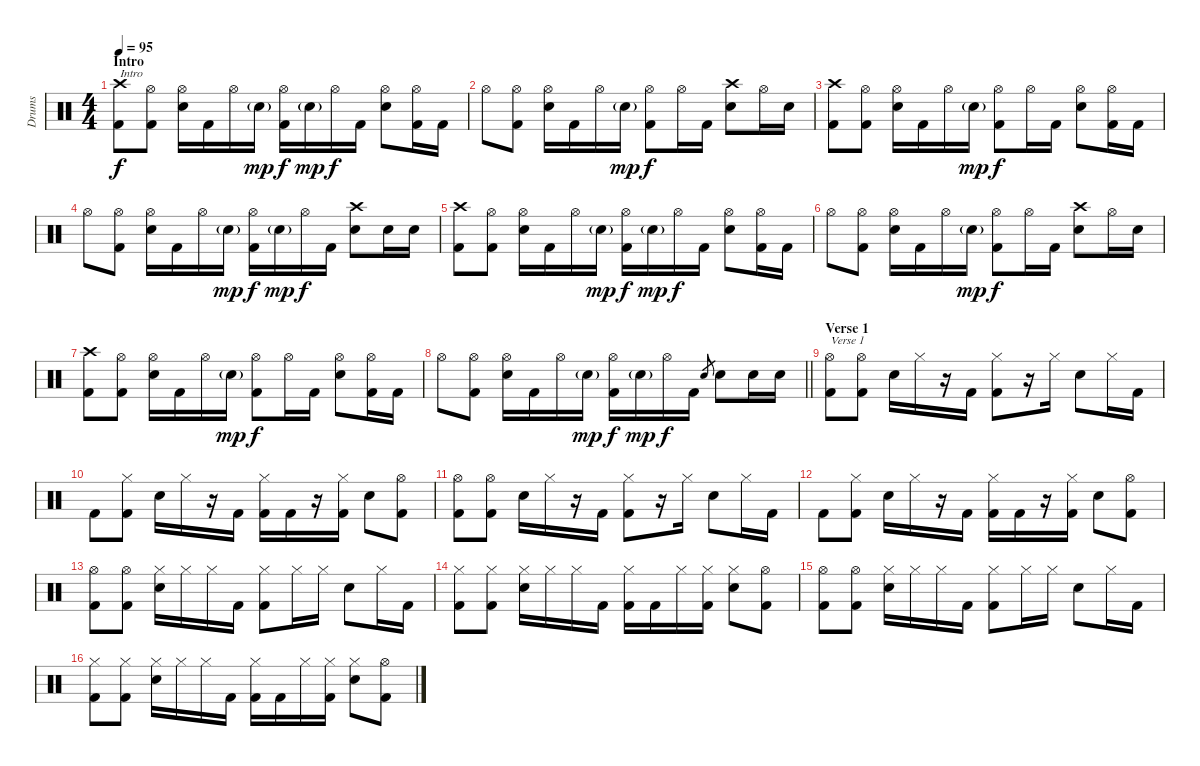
\track ("Drums" "Drums") {instrument percussion}
\staff {score}
\articulation defaults
\ts (4 4)
\section ("" "Intro")
\tempo 95
\clef neutral
\ks c
("Crash high (hit)" "Kick (hit) 2").8{txt "Intro" dy f} ("Hi-Hat (open)" "Kick (hit) 2").8 ("Hi-Hat (open)" "Electric Snare (hit)").16 "Kick (hit) 2".16 "Hi-Hat (open)".16 "Electric Snare (hit)"{g}.16{dy mp} ("Hi-Hat (open)" "Kick (hit) 2").16{dy f} "Electric Snare (hit)"{g}.16{dy mp} "Hi-Hat (open)".16{dy f} "Kick (hit) 2".16 ("Hi-Hat (open)" "Electric Snare (hit)").8 ("Hi-Hat (open)" "Kick (hit) 2").16 "Kick (hit) 2".16 |
"Hi-Hat (open)".8 ("Hi-Hat (open)" "Kick (hit) 2").8 ("Hi-Hat (open)" "Electric Snare (hit)").16 "Kick (hit) 2".16 "Hi-Hat (open)".16 "Electric Snare (hit)"{g}.16{dy mp} ("Hi-Hat (open)" "Kick (hit) 2").8{dy f} "Hi-Hat (open)".16 "Kick (hit) 2".16 ("Crash high (hit)" "Electric Snare (hit)").8 "Hi-Hat (open)".16 "Electric Snare (hit)".16 |
("Crash high (hit)" "Kick (hit) 2").8 ("Hi-Hat (open)" "Kick (hit) 2").8 ("Hi-Hat (open)" "Electric Snare (hit)").16 "Kick (hit) 2".16 "Hi-Hat (open)".16 "Electric Snare (hit)"{g}.16{dy mp} ("Hi-Hat (open)" "Kick (hit) 2").8{dy f} "Hi-Hat (open)".16 "Kick (hit) 2".16 ("Hi-Hat (open)" "Electric Snare (hit)").8 ("Hi-Hat (open)" "Kick (hit) 2").16 "Kick (hit) 2".16 |
"Hi-Hat (open)".8 ("Hi-Hat (open)" "Kick (hit) 2").8 ("Hi-Hat (open)" "Electric Snare (hit)").16 "Kick (hit) 2".16 "Hi-Hat (open)".16 "Electric Snare (hit)"{g}.16{dy mp} ("Hi-Hat (open)" "Kick (hit) 2").16{dy f} "Electric Snare (hit)"{g}.16{dy mp} "Hi-Hat (open)".16{dy f} "Kick (hit) 2".16 ("Crash high (hit)" "Electric Snare (hit)").8 "Electric Snare (hit)".16 "Electric Snare (hit)".16 |
("Crash high (hit)" "Kick (hit) 2").8 ("Hi-Hat (open)" "Kick (hit) 2").8 ("Hi-Hat (open)" "Electric Snare (hit)").16 "Kick (hit) 2".16 "Hi-Hat (open)".16 "Electric Snare (hit)"{g}.16{dy mp} ("Hi-Hat (open)" "Kick (hit) 2").16{dy f} "Electric Snare (hit)"{g}.16{dy mp} "Hi-Hat (open)".16{dy f} "Kick (hit) 2".16 ("Hi-Hat (open)" "Electric Snare (hit)").8 ("Hi-Hat (open)" "Kick (hit) 2").16 "Kick (hit) 2".16 |
"Hi-Hat (open)".8 ("Hi-Hat (open)" "Kick (hit) 2").8 ("Hi-Hat (open)" "Electric Snare (hit)").16 "Kick (hit) 2".16 "Hi-Hat (open)".16 "Electric Snare (hit)"{g}.16{dy mp} ("Hi-Hat (open)" "Kick (hit) 2").8{dy f} "Hi-Hat (open)".16 "Kick (hit) 2".16 ("Crash high (hit)" "Electric Snare (hit)").8 "Hi-Hat (open)".16 "Electric Snare (hit)".16 |
("Crash high (hit)" "Kick (hit) 2").8 ("Hi-Hat (open)" "Kick (hit) 2").8 ("Hi-Hat (open)" "Electric Snare (hit)").16 "Kick (hit) 2".16 "Hi-Hat (open)".16 "Electric Snare (hit)"{g}.16{dy mp} ("Hi-Hat (open)" "Kick (hit) 2").8{dy f} "Hi-Hat (open)".16 "Kick (hit) 2".16 ("Hi-Hat (open)" "Electric Snare (hit)").8 ("Hi-Hat (open)" "Kick (hit) 2").16 "Kick (hit) 2".16 |
\barLineRight lightlight "Hi-Hat (open)".8
("Hi-Hat (open)" "Kick (hit) 2").8 ("Hi-Hat (open)" "Electric Snare (hit)").16 "Kick (hit) 2".16 "Hi-Hat (open)".16 "Electric Snare (hit)"{g}.16{dy mp} ("Hi-Hat (open)" "Kick (hit) 2").16{dy f} "Electric Snare (hit)"{g}.16{dy mp} "Hi-Hat (open)".16{dy f} "Kick (hit) 2".16 "Electric Snare (hit)".8{gr} "Electric Snare (hit)".8 "Electric Snare (hit)".16 "Electric Snare (hit)".16 |
\section ("" "Verse 1")
("Hi-Hat (open)" "Kick (hit) 2").8{txt "Verse 1"} ("Hi-Hat (open)" "Kick (hit) 2").8 "Electric Snare (hit)".16 "Hi-Hat (closed)".16 r.16 "Kick (hit) 2".16 ("Hi-Hat (closed)" "Kick (hit) 2").8 r.16 "Hi-Hat (closed)".16 "Electric Snare (hit)".8 "Hi-Hat (closed)".16 "Kick (hit) 2".16 |
"Kick (hit) 2".8 ("Hi-Hat (closed)" "Kick (hit) 2").8 "Electric Snare (hit)".16 "Hi-Hat (closed)".16 r.16 "Kick (hit) 2".16 ("Hi-Hat (closed)" "Kick (hit) 2").16 "Kick (hit) 2".16 r.16 ("Hi-Hat (closed)" "Kick (hit) 2").16 "Electric Snare (hit)".8 ("Hi-Hat (open)" "Kick (hit) 2").8 |
("Hi-Hat (open)" "Kick (hit) 2").8 ("Hi-Hat (open)" "Kick (hit) 2").8 "Electric Snare (hit)".16 "Hi-Hat (closed)".16 r.16 "Kick (hit) 2".16 ("Hi-Hat (closed)" "Kick (hit) 2").8 r.16 "Hi-Hat (closed)".16 "Electric Snare (hit)".8 "Hi-Hat (closed)".16 "Kick (hit) 2".16 |
"Kick (hit) 2".8 ("Hi-Hat (closed)" "Kick (hit) 2").8 "Electric Snare (hit)".16 "Hi-Hat (closed)".16 r.16 "Kick (hit) 2".16 ("Hi-Hat (closed)" "Kick (hit) 2").16 "Kick (hit) 2".16 r.16 ("Hi-Hat (closed)" "Kick (hit) 2").16 "Electric Snare (hit)".8 ("Hi-Hat (open)" "Kick (hit) 2").8 |
("Hi-Hat (open)" "Kick (hit) 2").8 ("Hi-Hat (open)" "Kick (hit) 2").8 ("Hi-Hat (closed)" "Electric Snare (hit)").16 "Hi-Hat (closed)".16 "Hi-Hat (closed)".16 "Kick (hit) 2".16 ("Hi-Hat (closed)" "Kick (hit) 2").8 "Hi-Hat (closed)".16 "Hi-Hat (closed)".16 "Electric Snare (hit)".8 "Hi-Hat (closed)".16 "Kick (hit) 2".16 |
("Hi-Hat (closed)" "Kick (hit) 2").8 ("Hi-Hat (closed)" "Kick (hit) 2").8 ("Hi-Hat (closed)" "Electric Snare (hit)").16 "Hi-Hat (closed)".16 "Hi-Hat (closed)".16 "Kick (hit) 2".16 ("Hi-Hat (closed)" "Kick (hit) 2").16 "Kick (hit) 2".16 "Hi-Hat (closed)".16 ("Hi-Hat (closed)" "Kick (hit) 2").16 ("Hi-Hat (closed)" "Electric Snare (hit)").8 ("Hi-Hat (open)" "Kick (hit) 2").8 |
("Hi-Hat (open)" "Kick (hit) 2").8 ("Hi-Hat (open)" "Kick (hit) 2").8 ("Hi-Hat (closed)" "Electric Snare (hit)").16 "Hi-Hat (closed)".16 "Hi-Hat (closed)".16 "Kick (hit) 2".16 ("Hi-Hat (closed)" "Kick (hit) 2").8 "Hi-Hat (closed)".16 "Hi-Hat (closed)".16 "Electric Snare (hit)".8 "Hi-Hat (closed)".16 "Kick (hit) 2".16 |
("Hi-Hat (closed)" "Kick (hit) 2").8 ("Hi-Hat (closed)" "Kick (hit) 2").8 ("Hi-Hat (closed)" "Electric Snare (hit)").16 "Hi-Hat (closed)".16 "Hi-Hat (closed)".16 "Kick (hit) 2".16 ("Hi-Hat (closed)" "Kick (hit) 2").16 "Kick (hit) 2".16 "Hi-Hat (closed)".16 ("Hi-Hat (closed)" "Kick (hit) 2").16 ("Hi-Hat (closed)" "Electric Snare (hit)").8 ("Hi-Hat (open)" "Kick (hit) 2").8
